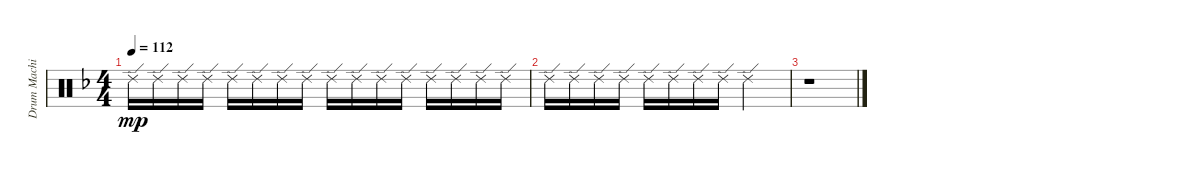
\track ("Drum Machine" "Drum Machi") {instrument percussion}
\staff {score}
\articulation defaults
\ts (4 4)
\tempo 112
\clef neutral
\ks f "Ride (edge) 2".16{dy mp} "Ride (edge) 2".16 "Ride (edge) 2".16 "Ride (edge) 2".16 "Ride (edge) 2".16 "Ride (edge) 2".16 "Ride (edge) 2".16 "Ride (edge) 2".16 "Ride (edge) 2".16 "Ride (edge) 2".16 "Ride (edge) 2".16 "Ride (edge) 2".16 "Ride (edge) 2".16 "Ride (edge) 2".16 "Ride (edge) 2".16 "Ride (edge) 2".16
|
"Ride (edge) 2".16 "Ride (edge) 2".16 "Ride (edge) 2".16 "Ride (edge) 2".16 "Ride (edge) 2".16 "Ride (edge) 2".16 "Ride (edge) 2".16 "Ride (edge) 2".16 "Ride (edge) 2".2 |
r.1
